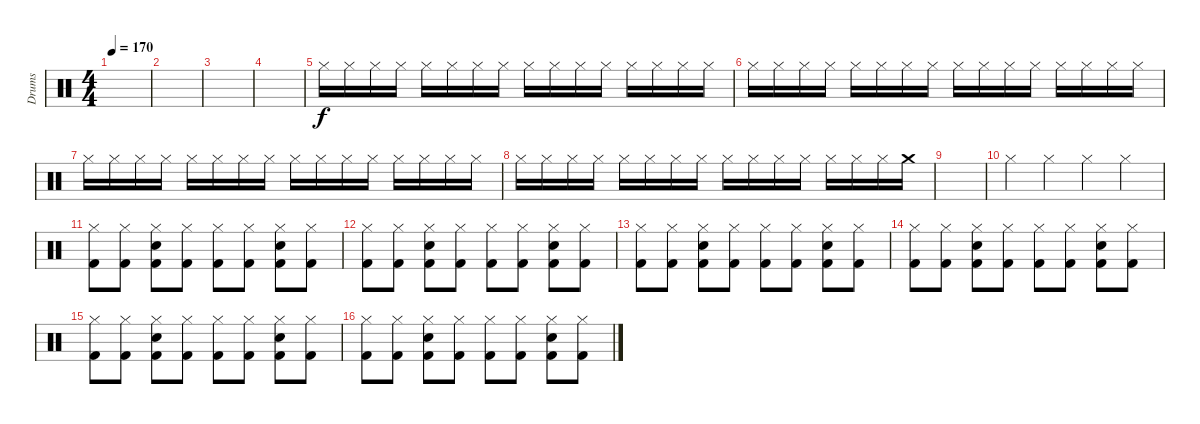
\track ("Drums" "Drums") {instrument percussion}
\staff {score}
\articulation defaults
\ts (4 4)
\tempo 170
\clef neutral
\ks c
|
|
|
|
"Hi-Hat (closed)".16 "Hi-Hat (closed)".16 "Hi-Hat (closed)".16 "Hi-Hat (closed)".16 "Hi-Hat (closed)".16 "Hi-Hat (closed)".16 "Hi-Hat (closed)".16 "Hi-Hat (closed)".16 "Hi-Hat (closed)".16 "Hi-Hat (closed)".16 "Hi-Hat (closed)".16 "Hi-Hat (closed)".16 "Hi-Hat (closed)".16 "Hi-Hat (closed)".16 "Hi-Hat (closed)".16 "Hi-Hat (closed)".16 |
"Hi-Hat (closed)".16 "Hi-Hat (closed)".16 "Hi-Hat (closed)".16 "Hi-Hat (closed)".16 "Hi-Hat (closed)".16 "Hi-Hat (closed)".16 "Hi-Hat (closed)".16 "Hi-Hat (closed)".16 "Hi-Hat (closed)".16 "Hi-Hat (closed)".16 "Hi-Hat (closed)".16 "Hi-Hat (closed)".16 "Hi-Hat (closed)".16 "Hi-Hat (closed)".16 "Hi-Hat (closed)".16 "Hi-Hat (closed)".16 |
"Hi-Hat (closed)".16 "Hi-Hat (closed)".16 "Hi-Hat (closed)".16 "Hi-Hat (closed)".16 "Hi-Hat (closed)".16 "Hi-Hat (closed)".16 "Hi-Hat (closed)".16 "Hi-Hat (closed)".16 "Hi-Hat (closed)".16 "Hi-Hat (closed)".16 "Hi-Hat (closed)".16 "Hi-Hat (closed)".16 "Hi-Hat (closed)".16 "Hi-Hat (closed)".16 "Hi-Hat (closed)".16 "Hi-Hat (closed)".16 |
"Hi-Hat (closed)".16 "Hi-Hat (closed)".16 "Hi-Hat (closed)".16 "Hi-Hat (closed)".16 "Hi-Hat (closed)".16 "Hi-Hat (closed)".16 "Hi-Hat (closed)".16 "Hi-Hat (closed)".16 "Hi-Hat (closed)".16 "Hi-Hat (closed)".16 "Hi-Hat (closed)".16 "Hi-Hat (closed)".16 "Hi-Hat (closed)".16 "Hi-Hat (closed)".16 "Hi-Hat (closed)".16 "Crash medium (hit)".16 |
|
"Hi-Hat (closed)".4 "Hi-Hat (closed)".4 "Hi-Hat (closed)".4 "Hi-Hat (closed)".4 |
("Hi-Hat (closed)" "Kick (hit) 2").8 ("Hi-Hat (closed)" "Kick (hit) 2").8 ("Hi-Hat (closed)" "Electric Snare (hit)" "Kick (hit) 2").8 ("Hi-Hat (closed)" "Kick (hit) 2").8 ("Hi-Hat (closed)" "Kick (hit) 2").8 ("Hi-Hat (closed)" "Kick (hit) 2").8 ("Hi-Hat (closed)" "Electric Snare (hit)" "Kick (hit) 2").8 ("Hi-Hat (closed)" "Kick (hit) 2").8 |
("Hi-Hat (closed)" "Kick (hit) 2").8 ("Hi-Hat (closed)" "Kick (hit) 2").8 ("Hi-Hat (closed)" "Electric Snare (hit)" "Kick (hit) 2").8 ("Hi-Hat (closed)" "Kick (hit) 2").8 ("Hi-Hat (closed)" "Kick (hit) 2").8 ("Hi-Hat (closed)" "Kick (hit) 2").8 ("Hi-Hat (closed)" "Electric Snare (hit)" "Kick (hit) 2").8 ("Hi-Hat (closed)" "Kick (hit) 2").8 |
("Hi-Hat (closed)" "Kick (hit) 2").8 ("Hi-Hat (closed)" "Kick (hit) 2").8 ("Hi-Hat (closed)" "Electric Snare (hit)" "Kick (hit) 2").8 ("Hi-Hat (closed)" "Kick (hit) 2").8 ("Hi-Hat (closed)" "Kick (hit) 2").8 ("Hi-Hat (closed)" "Kick (hit) 2").8 ("Hi-Hat (closed)" "Electric Snare (hit)" "Kick (hit) 2").8 ("Hi-Hat (closed)" "Kick (hit) 2").8 |
("Hi-Hat (closed)" "Kick (hit) 2").8 ("Hi-Hat (closed)" "Kick (hit) 2").8 ("Hi-Hat (closed)" "Electric Snare (hit)" "Kick (hit) 2").8 ("Hi-Hat (closed)" "Kick (hit) 2").8 ("Hi-Hat (closed)" "Kick (hit) 2").8 ("Hi-Hat (closed)" "Kick (hit) 2").8 ("Hi-Hat (closed)" "Electric Snare (hit)" "Kick (hit) 2").8 ("Hi-Hat (closed)" "Kick (hit) 2").8 |
("Hi-Hat (closed)" "Kick (hit) 2").8 ("Hi-Hat (closed)" "Kick (hit) 2").8 ("Hi-Hat (closed)" "Electric Snare (hit)" "Kick (hit) 2").8 ("Hi-Hat (closed)" "Kick (hit) 2").8 ("Hi-Hat (closed)" "Kick (hit) 2").8 ("Hi-Hat (closed)" "Kick (hit) 2").8 ("Hi-Hat (closed)" "Electric Snare (hit)" "Kick (hit) 2").8 ("Hi-Hat (closed)" "Kick (hit) 2").8 |
("Hi-Hat (closed)" "Kick (hit) 2").8 ("Hi-Hat (closed)" "Kick (hit) 2").8 ("Hi-Hat (closed)" "Electric Snare (hit)" "Kick (hit) 2").8 ("Hi-Hat (closed)" "Kick (hit) 2").8 ("Hi-Hat (closed)" "Kick (hit) 2").8 ("Hi-Hat (closed)" "Kick (hit) 2").8 ("Hi-Hat (closed)" "Electric Snare (hit)" "Kick (hit) 2").8 ("Hi-Hat (closed)" "Kick (hit) 2").8
